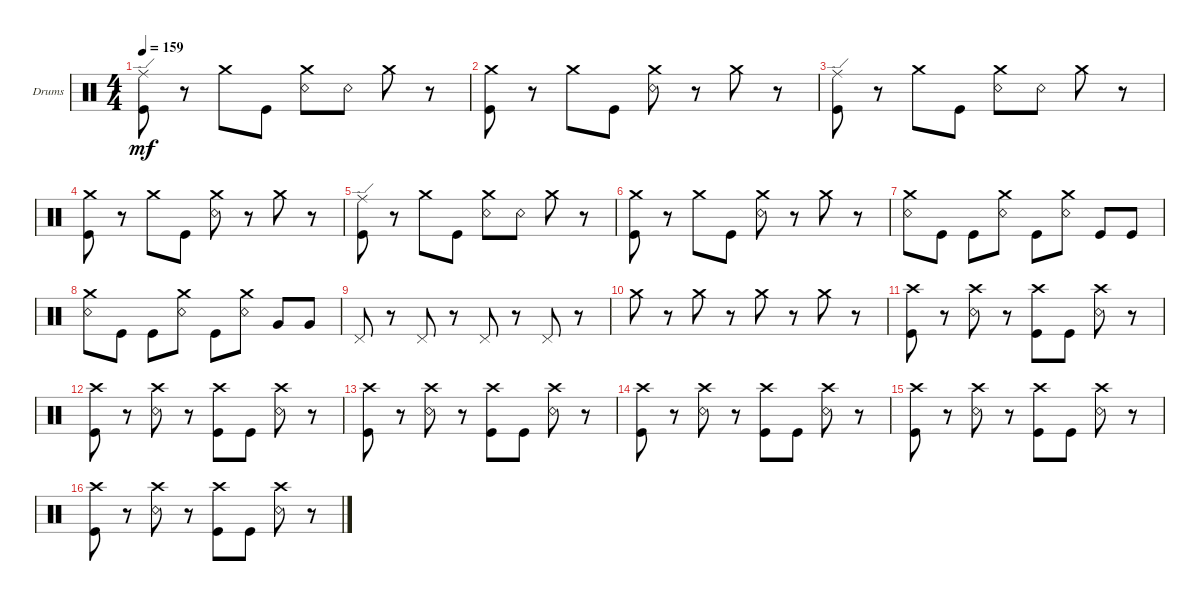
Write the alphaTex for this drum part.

\defaultSystemsLayout 4
\bracketExtendMode groupsimilarinstruments
\firstSystemTrackNameOrientation horizontal
\otherSystemsTrackNameOrientation horizontal
\track ("Drumkit" "Drums") {instrument percussion}
\staff {score}
\articulation defaults
\ts (4 4)
\tempo 159
\clef neutral
\ks c
("Ride (edge)" "Kick (hit)").8{dy mf} r.8 "Crash medium (hit)".8 "Kick (hit)".8 ("Crash medium (hit)" "Snare (rim shot)").8 "Snare (rim shot)".8 "Crash medium (hit)".8 r.8 |
("Crash medium (hit)" "Kick (hit)").8 r.8 "Crash medium (hit)".8 "Kick (hit)".8 ("Crash medium (hit)" "Snare (rim shot)").8 r.8 "Crash medium (hit)".8 r.8 |
("Ride (edge)" "Kick (hit)").8 r.8 "Crash medium (hit)".8 "Kick (hit)".8 ("Crash medium (hit)" "Snare (rim shot)").8 "Snare (rim shot)".8 "Crash medium (hit)".8 r.8 |
("Crash medium (hit)" "Kick (hit)").8 r.8 "Crash medium (hit)".8 "Kick (hit)".8 ("Crash medium (hit)" "Snare (rim shot)").8 r.8 "Crash medium (hit)".8 r.8 |
("Ride (edge)" "Kick (hit)").8 r.8 "Crash medium (hit)".8 "Kick (hit)".8 ("Crash medium (hit)" "Snare (rim shot)").8 "Snare (rim shot)".8 "Crash medium (hit)".8 r.8 |
("Crash medium (hit)" "Kick (hit)").8 r.8 "Crash medium (hit)".8 "Kick (hit)".8 ("Crash medium (hit)" "Snare (rim shot)").8 r.8 "Crash medium (hit)".8 r.8 |
("Snare (rim shot)" "Crash medium (hit)").8 "Kick (hit)".8 "Kick (hit)".8 ("Snare (rim shot)" "Crash medium (hit)").8 "Kick (hit)".8 ("Snare (rim shot)" "Crash medium (hit)").8 "Kick (hit)".8 "Kick (hit)".8 |
("Snare (rim shot)" "Crash medium (hit)").8 "Kick (hit)".8 "Kick (hit)".8 ("Snare (rim shot)" "Crash medium (hit)").8 "Kick (hit)".8 ("Snare (rim shot)" "Crash medium (hit)").8 "Very Low Tom (hit)".8 "Very Low Tom (hit)".8 |
"Pedal Hi-Hat (hit)".8 r.8 "Pedal Hi-Hat (hit)".8 r.8 "Pedal Hi-Hat (hit)".8 r.8 "Pedal Hi-Hat (hit)".8 r.8 |
"Crash medium (hit)".8 r.8 "Crash medium (hit)".8 r.8 "Crash medium (hit)".8 r.8 "Crash medium (hit)".8 r.8 |
("Crash high (hit)" "Kick (hit)").8 r.8 ("Crash high (hit)" "Snare (rim shot)").8 r.8 ("Crash high (hit)" "Kick (hit)").8 "Kick (hit)".8 ("Crash high (hit)" "Snare (rim shot)").8 r.8 |
("Crash high (hit)" "Kick (hit)").8 r.8 ("Crash high (hit)" "Snare (rim shot)").8 r.8 ("Crash high (hit)" "Kick (hit)").8 "Kick (hit)".8 ("Crash high (hit)" "Snare (rim shot)").8 r.8 |
("Crash high (hit)" "Kick (hit)").8 r.8 ("Crash high (hit)" "Snare (rim shot)").8 r.8 ("Crash high (hit)" "Kick (hit)").8 "Kick (hit)".8 ("Crash high (hit)" "Snare (rim shot)").8 r.8 |
("Crash high (hit)" "Kick (hit)").8 r.8 ("Crash high (hit)" "Snare (rim shot)").8 r.8 ("Crash high (hit)" "Kick (hit)").8 "Kick (hit)".8 ("Crash high (hit)" "Snare (rim shot)").8 r.8 |
("Crash high (hit)" "Kick (hit)").8 r.8 ("Crash high (hit)" "Snare (rim shot)").8 r.8 ("Crash high (hit)" "Kick (hit)").8 "Kick (hit)".8 ("Crash high (hit)" "Snare (rim shot)").8 r.8 |
("Crash high (hit)" "Kick (hit)").8 r.8 ("Crash high (hit)" "Snare (rim shot)").8 r.8 ("Crash high (hit)" "Kick (hit)").8 "Kick (hit)".8 ("Crash high (hit)" "Snare (rim shot)").8 r.8
